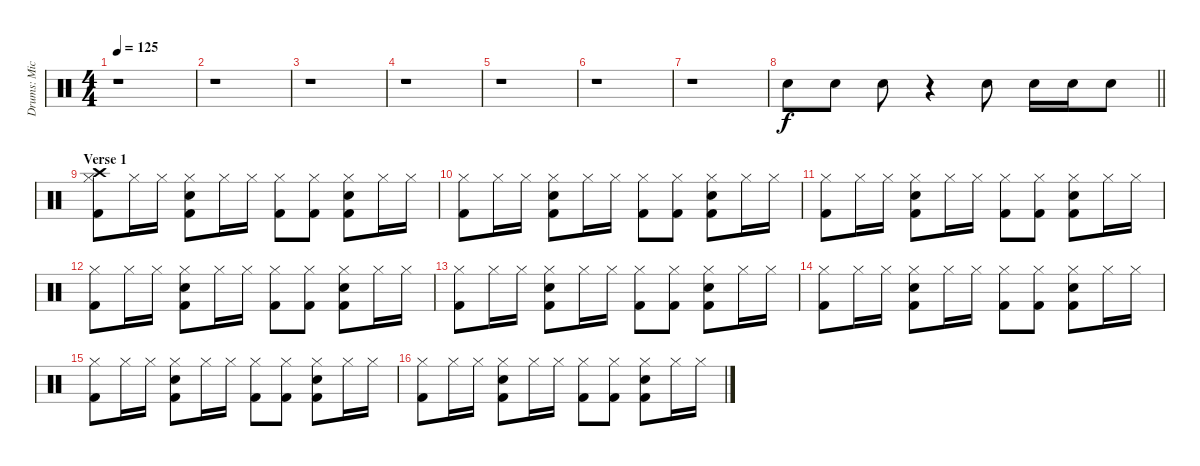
\track ("Drums: Mick Fleetwood" "Drums: Mic") {instrument percussion}
\staff {score}
\articulation defaults
\ts (4 4)
\tempo 125
\clef neutral
\ks c
r.1{dy f} |
r.1 |
r.1 |
r.1 |
r.1 |
r.1 |
r.1 |
\barLineRight lightlight "Snare (hit) 2".8 "Snare (hit) 2".8 "Snare (hit) 2".8
r.4 "Snare (hit) 2".8 "Snare (hit) 2".16 "Snare (hit) 2".16 "Snare (hit) 2".8 |
\section ("" "Verse 1")
("Crash high (hit)" "Hi-Hat (closed)" "Kick (hit) 2").8 "Hi-Hat (closed)".16 "Hi-Hat (closed)".16 ("Hi-Hat (closed)" "Snare (hit) 2" "Kick (hit) 2").8 "Hi-Hat (closed)".16 "Hi-Hat (closed)".16 ("Hi-Hat (closed)" "Kick (hit) 2").8 ("Hi-Hat (closed)" "Kick (hit) 2").8 ("Hi-Hat (closed)" "Snare (hit) 2" "Kick (hit) 2").8 "Hi-Hat (closed)".16 "Hi-Hat (closed)".16 |
("Hi-Hat (closed)" "Kick (hit) 2").8 "Hi-Hat (closed)".16 "Hi-Hat (closed)".16 ("Hi-Hat (closed)" "Snare (hit) 2" "Kick (hit) 2").8 "Hi-Hat (closed)".16 "Hi-Hat (closed)".16 ("Hi-Hat (closed)" "Kick (hit) 2").8 ("Hi-Hat (closed)" "Kick (hit) 2").8 ("Hi-Hat (closed)" "Snare (hit) 2" "Kick (hit) 2").8 "Hi-Hat (closed)".16 "Hi-Hat (closed)".16 |
("Hi-Hat (closed)" "Kick (hit) 2").8 "Hi-Hat (closed)".16 "Hi-Hat (closed)".16 ("Hi-Hat (closed)" "Snare (hit) 2" "Kick (hit) 2").8 "Hi-Hat (closed)".16 "Hi-Hat (closed)".16 ("Hi-Hat (closed)" "Kick (hit) 2").8 ("Hi-Hat (closed)" "Kick (hit) 2").8 ("Hi-Hat (closed)" "Snare (hit) 2" "Kick (hit) 2").8 "Hi-Hat (closed)".16 "Hi-Hat (closed)".16 |
("Hi-Hat (closed)" "Kick (hit) 2").8 "Hi-Hat (closed)".16 "Hi-Hat (closed)".16 ("Hi-Hat (closed)" "Snare (hit) 2" "Kick (hit) 2").8 "Hi-Hat (closed)".16 "Hi-Hat (closed)".16 ("Hi-Hat (closed)" "Kick (hit) 2").8 ("Hi-Hat (closed)" "Kick (hit) 2").8 ("Hi-Hat (closed)" "Snare (hit) 2" "Kick (hit) 2").8 "Hi-Hat (closed)".16 "Hi-Hat (closed)".16 |
("Hi-Hat (closed)" "Kick (hit) 2").8 "Hi-Hat (closed)".16 "Hi-Hat (closed)".16 ("Hi-Hat (closed)" "Snare (hit) 2" "Kick (hit) 2").8 "Hi-Hat (closed)".16 "Hi-Hat (closed)".16 ("Hi-Hat (closed)" "Kick (hit) 2").8 ("Hi-Hat (closed)" "Kick (hit) 2").8 ("Hi-Hat (closed)" "Snare (hit) 2" "Kick (hit) 2").8 "Hi-Hat (closed)".16 "Hi-Hat (closed)".16 |
("Hi-Hat (closed)" "Kick (hit) 2").8 "Hi-Hat (closed)".16 "Hi-Hat (closed)".16 ("Hi-Hat (closed)" "Snare (hit) 2" "Kick (hit) 2").8 "Hi-Hat (closed)".16 "Hi-Hat (closed)".16 ("Hi-Hat (closed)" "Kick (hit) 2").8 ("Hi-Hat (closed)" "Kick (hit) 2").8 ("Hi-Hat (closed)" "Snare (hit) 2" "Kick (hit) 2").8 "Hi-Hat (closed)".16 "Hi-Hat (closed)".16 |
("Hi-Hat (closed)" "Kick (hit) 2").8 "Hi-Hat (closed)".16 "Hi-Hat (closed)".16 ("Hi-Hat (closed)" "Snare (hit) 2" "Kick (hit) 2").8 "Hi-Hat (closed)".16 "Hi-Hat (closed)".16 ("Hi-Hat (closed)" "Kick (hit) 2").8 ("Hi-Hat (closed)" "Kick (hit) 2").8 ("Hi-Hat (closed)" "Snare (hit) 2" "Kick (hit) 2").8 "Hi-Hat (closed)".16 "Hi-Hat (closed)".16 |
("Hi-Hat (closed)" "Kick (hit) 2").8 "Hi-Hat (closed)".16 "Hi-Hat (closed)".16 ("Hi-Hat (closed)" "Snare (hit) 2" "Kick (hit) 2").8 "Hi-Hat (closed)".16 "Hi-Hat (closed)".16 ("Hi-Hat (closed)" "Kick (hit) 2").8 ("Hi-Hat (closed)" "Kick (hit) 2").8 ("Hi-Hat (closed)" "Snare (hit) 2" "Kick (hit) 2").8 "Hi-Hat (closed)".16 "Hi-Hat (closed)".16
